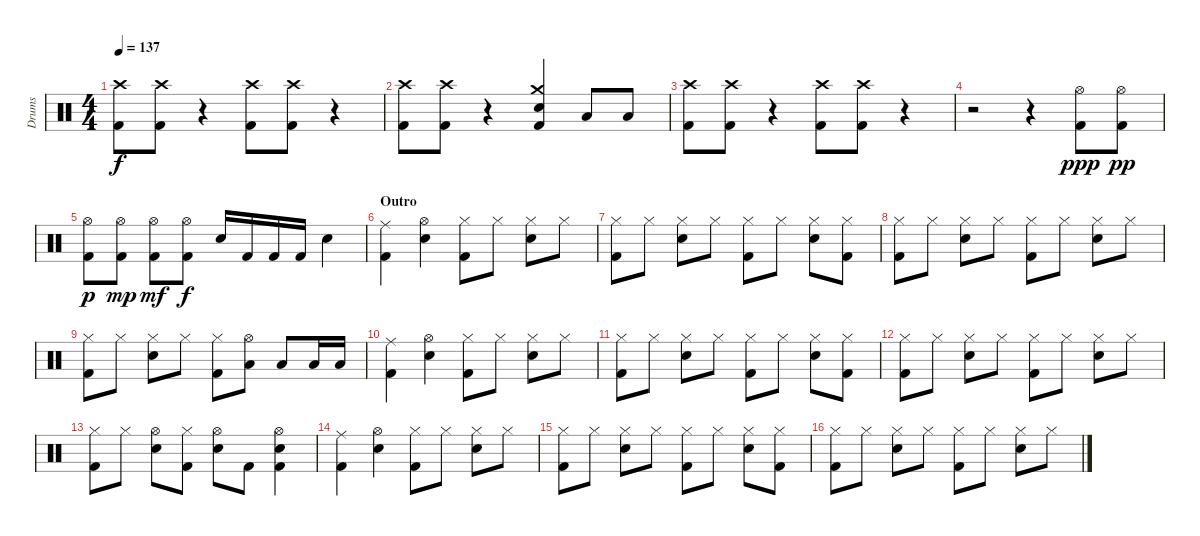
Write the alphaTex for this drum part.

\track ("Drums" "Drums") {instrument percussion}
\staff {score}
\articulation defaults
\ts (4 4)
\tempo 137
\clef neutral
\ks c
("Crash high (hit)" "Kick (hit) 2").8{dy f} ("Crash high (hit)" "Kick (hit) 2").8 r.4 ("Crash high (hit)" "Kick (hit) 2").8 ("Crash high (hit)" "Kick (hit) 2").8 r.4 |
("Crash high (hit)" "Kick (hit) 2").8 ("Crash high (hit)" "Kick (hit) 2").8 r.4 ("Crash medium (hit)" "Snare (hit) 2" "Kick (hit) 2").4 "Low Tom (hit)".8 "Low Tom (hit)".8 |
("Crash high (hit)" "Kick (hit) 2").8 ("Crash high (hit)" "Kick (hit) 2").8 r.4 ("Crash high (hit)" "Kick (hit) 2").8 ("Crash high (hit)" "Kick (hit) 2").8 r.4 |
r.2 r.4 ("Hi-Hat (open)" "Kick (hit) 2").8{dy ppp} ("Hi-Hat (open)" "Kick (hit) 2").8{dy pp} |
("Hi-Hat (open)" "Kick (hit) 2").8{dy p} ("Hi-Hat (open)" "Kick (hit) 2").8{dy mp} ("Hi-Hat (open)" "Kick (hit) 2").8{dy mf} ("Hi-Hat (open)" "Kick (hit) 2").8{dy f} "Snare (hit) 2".16 "Kick (hit) 2".16 "Kick (hit) 2".16 "Kick (hit) 2".16 "Snare (hit) 2".4 |
\section ("" "Outro")
("Ride (middle)" "Kick (hit) 2").4 ("Hi-Hat (open)" "Snare (hit) 2").4 ("Hi-Hat (closed)" "Kick (hit) 2").8 "Hi-Hat (closed)".8 ("Hi-Hat (closed)" "Snare (hit) 2").8 "Hi-Hat (closed)".8 |
("Hi-Hat (closed)" "Kick (hit) 2").8 "Hi-Hat (closed)".8 ("Hi-Hat (closed)" "Snare (hit) 2").8 "Hi-Hat (closed)".8 ("Hi-Hat (closed)" "Kick (hit) 2").8 "Hi-Hat (closed)".8 ("Hi-Hat (closed)" "Snare (hit) 2").8 ("Hi-Hat (closed)" "Kick (hit) 2").8 |
("Hi-Hat (closed)" "Kick (hit) 2").8 "Hi-Hat (closed)".8 ("Hi-Hat (closed)" "Snare (hit) 2").8 "Hi-Hat (closed)".8 ("Hi-Hat (closed)" "Kick (hit) 2").8 "Hi-Hat (closed)".8 ("Hi-Hat (closed)" "Snare (hit) 2").8 "Hi-Hat (closed)".8 |
("Hi-Hat (closed)" "Kick (hit) 2").8 "Hi-Hat (closed)".8 ("Hi-Hat (closed)" "Snare (hit) 2").8 "Hi-Hat (closed)".8 ("Hi-Hat (closed)" "Kick (hit) 2").8 ("Hi-Hat (open)" "Low Tom (hit)").8 "Low Tom (hit)".8 "Low Tom (hit)".16 "Low Tom (hit)".16 |
("Ride (middle)" "Kick (hit) 2").4 ("Hi-Hat (open)" "Snare (hit) 2").4 ("Hi-Hat (closed)" "Kick (hit) 2").8 "Hi-Hat (closed)".8 ("Hi-Hat (closed)" "Snare (hit) 2").8 "Hi-Hat (closed)".8 |
("Hi-Hat (closed)" "Kick (hit) 2").8 "Hi-Hat (closed)".8 ("Hi-Hat (closed)" "Snare (hit) 2").8 "Hi-Hat (closed)".8 ("Hi-Hat (closed)" "Kick (hit) 2").8 "Hi-Hat (closed)".8 ("Hi-Hat (closed)" "Snare (hit) 2").8 ("Hi-Hat (closed)" "Kick (hit) 2").8 |
("Hi-Hat (closed)" "Kick (hit) 2").8 "Hi-Hat (closed)".8 ("Hi-Hat (closed)" "Snare (hit) 2").8 "Hi-Hat (closed)".8 ("Hi-Hat (closed)" "Kick (hit) 2").8 "Hi-Hat (closed)".8 ("Hi-Hat (closed)" "Snare (hit) 2").8 "Hi-Hat (closed)".8 |
("Hi-Hat (closed)" "Kick (hit) 2").8 "Hi-Hat (closed)".8 ("Hi-Hat (open)" "Snare (hit) 2").8 ("Hi-Hat (closed)" "Kick (hit) 2").8 ("Hi-Hat (open)" "Snare (hit) 2").8 "Kick (hit) 2".8 ("Hi-Hat (open)" "Snare (hit) 2" "Kick (hit) 2").4 |
("Ride (middle)" "Kick (hit) 2").4 ("Hi-Hat (open)" "Snare (hit) 2").4 ("Hi-Hat (closed)" "Kick (hit) 2").8 "Hi-Hat (closed)".8 ("Hi-Hat (closed)" "Snare (hit) 2").8 "Hi-Hat (closed)".8 |
("Hi-Hat (closed)" "Kick (hit) 2").8 "Hi-Hat (closed)".8 ("Hi-Hat (closed)" "Snare (hit) 2").8 "Hi-Hat (closed)".8 ("Hi-Hat (closed)" "Kick (hit) 2").8 "Hi-Hat (closed)".8 ("Hi-Hat (closed)" "Snare (hit) 2").8 ("Hi-Hat (closed)" "Kick (hit) 2").8 |
("Hi-Hat (closed)" "Kick (hit) 2").8 "Hi-Hat (closed)".8 ("Hi-Hat (closed)" "Snare (hit) 2").8 "Hi-Hat (closed)".8 ("Hi-Hat (closed)" "Kick (hit) 2").8 "Hi-Hat (closed)".8 ("Hi-Hat (closed)" "Snare (hit) 2").8 "Hi-Hat (closed)".8
